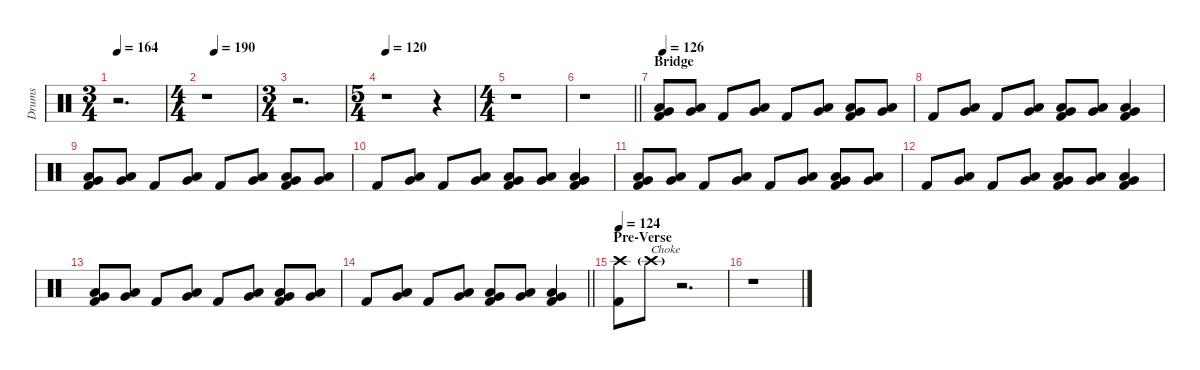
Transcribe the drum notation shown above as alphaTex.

\defaultSystemsLayout 4
\hideDynamics
\bracketExtendMode nobrackets
\firstSystemTrackNameMode fullname
\otherSystemsTrackNameOrientation horizontal
\track ("Drums" "drm.") {instrument percussion}
\staff {score}
\articulation defaults
\ts (3 4)
\beaming (8 2 2 2 2)
\tempo 164
\clef neutral
\ks c
r.2{d dy f beam Down} |
\ts (4 4)
\beaming (8 2 2 2 2)
\tempo (190 0.166667)
r.1{beam Down} |
\ts (3 4)
\beaming (8 2 2 2 2)
r.2{d beam Down} |
\ts (5 4)
\beaming (8 2 2 2 4)
\tempo 120
r.1{beam Down} r.4{beam Down} |
\ts (4 4)
\beaming (8 2 2 2 2)
r.1{beam Down} |
\barLineRight lightlight
r.1{beam Down} |
\section ("" "Bridge")
\tempo 126
("Low Tom (hit)" "Very Low Tom (hit)" "Kick (hit) 2").8{beam Up} ("Low Tom (hit)" "Very Low Tom (hit)").8{beam Up} "Kick (hit) 2".8{beam Up} ("Low Tom (hit)" "Very Low Tom (hit)").8{beam Up} "Kick (hit) 2".8{beam Up} ("Low Tom (hit)" "Very Low Tom (hit)").8{beam Up} ("Very Low Tom (hit)" "Low Floor Tom (hit)" "Kick (hit) 2").8{beam Up} ("Very Low Tom (hit)" "Low Floor Tom (hit)").8{beam Up} |
"Kick (hit) 2".8{beam Up} ("Very Low Tom (hit)" "Low Floor Tom (hit)").8{beam Up} "Kick (hit) 2".8{beam Up} ("Very Low Tom (hit)" "Low Floor Tom (hit)").8{beam Up} ("Low Tom (hit)" "Very Low Tom (hit)" "Kick (hit) 2").8{beam Up} ("Low Tom (hit)" "Very Low Tom (hit)").8{beam Up} ("Very Low Tom (hit)" "Low Floor Tom (hit)" "Kick (hit) 2").4{beam Up} |
("Low Tom (hit)" "Very Low Tom (hit)" "Kick (hit) 2").8{beam Up} ("Low Tom (hit)" "Very Low Tom (hit)").8{beam Up} "Kick (hit) 2".8{beam Up} ("Low Tom (hit)" "Very Low Tom (hit)").8{beam Up} "Kick (hit) 2".8{beam Up} ("Low Tom (hit)" "Very Low Tom (hit)").8{beam Up} ("Very Low Tom (hit)" "Low Floor Tom (hit)" "Kick (hit) 2").8{beam Up} ("Very Low Tom (hit)" "Low Floor Tom (hit)").8{beam Up} |
"Kick (hit) 2".8{beam Up} ("Very Low Tom (hit)" "Low Floor Tom (hit)").8{beam Up} "Kick (hit) 2".8{beam Up} ("Very Low Tom (hit)" "Low Floor Tom (hit)").8{beam Up} ("Low Tom (hit)" "Very Low Tom (hit)" "Kick (hit) 2").8{beam Up} ("Low Tom (hit)" "Very Low Tom (hit)").8{beam Up} ("Very Low Tom (hit)" "Low Floor Tom (hit)" "Kick (hit) 2").4{beam Up} |
("Low Tom (hit)" "Very Low Tom (hit)" "Kick (hit) 2").8{beam Up} ("Low Tom (hit)" "Very Low Tom (hit)").8{beam Up} "Kick (hit) 2".8{beam Up} ("Low Tom (hit)" "Very Low Tom (hit)").8{beam Up} "Kick (hit) 2".8{beam Up} ("Low Tom (hit)" "Very Low Tom (hit)").8{beam Up} ("Very Low Tom (hit)" "Low Floor Tom (hit)" "Kick (hit) 2").8{beam Up} ("Very Low Tom (hit)" "Low Floor Tom (hit)").8{beam Up} |
"Kick (hit) 2".8{beam Up} ("Very Low Tom (hit)" "Low Floor Tom (hit)").8{beam Up} "Kick (hit) 2".8{beam Up} ("Very Low Tom (hit)" "Low Floor Tom (hit)").8{beam Up} ("Low Tom (hit)" "Very Low Tom (hit)" "Kick (hit) 2").8{beam Up} ("Low Tom (hit)" "Very Low Tom (hit)").8{beam Up} ("Very Low Tom (hit)" "Low Floor Tom (hit)" "Kick (hit) 2").4{beam Up} |
("Low Tom (hit)" "Very Low Tom (hit)" "Kick (hit) 2").8{beam Up} ("Low Tom (hit)" "Very Low Tom (hit)").8{beam Up} "Kick (hit) 2".8{beam Up} ("Low Tom (hit)" "Very Low Tom (hit)").8{beam Up} "Kick (hit) 2".8{beam Up} ("Low Tom (hit)" "Very Low Tom (hit)").8{beam Up} ("Very Low Tom (hit)" "Low Floor Tom (hit)" "Kick (hit) 2").8{beam Up} ("Very Low Tom (hit)" "Low Floor Tom (hit)").8{beam Up} |
\barLineRight lightlight "Kick (hit) 2".8{beam Up}
("Very Low Tom (hit)" "Low Floor Tom (hit)").8{beam Up} "Kick (hit) 2".8{beam Up} ("Very Low Tom (hit)" "Low Floor Tom (hit)").8{beam Up} ("Low Tom (hit)" "Very Low Tom (hit)" "Kick (hit) 2").8{beam Up} ("Low Tom (hit)" "Very Low Tom (hit)").8{beam Up} ("Very Low Tom (hit)" "Low Floor Tom (hit)" "Kick (hit) 2").4{beam Up} |
\section ("" "Pre-Verse")
\tempo 124
("Crash high (hit)" "Kick (hit) 2").8{beam Down} "Crash high (hit)"{g}.8{txt "Choke" dy pp beam Down} r.2{d beam Down} |
r.1{beam Down}
